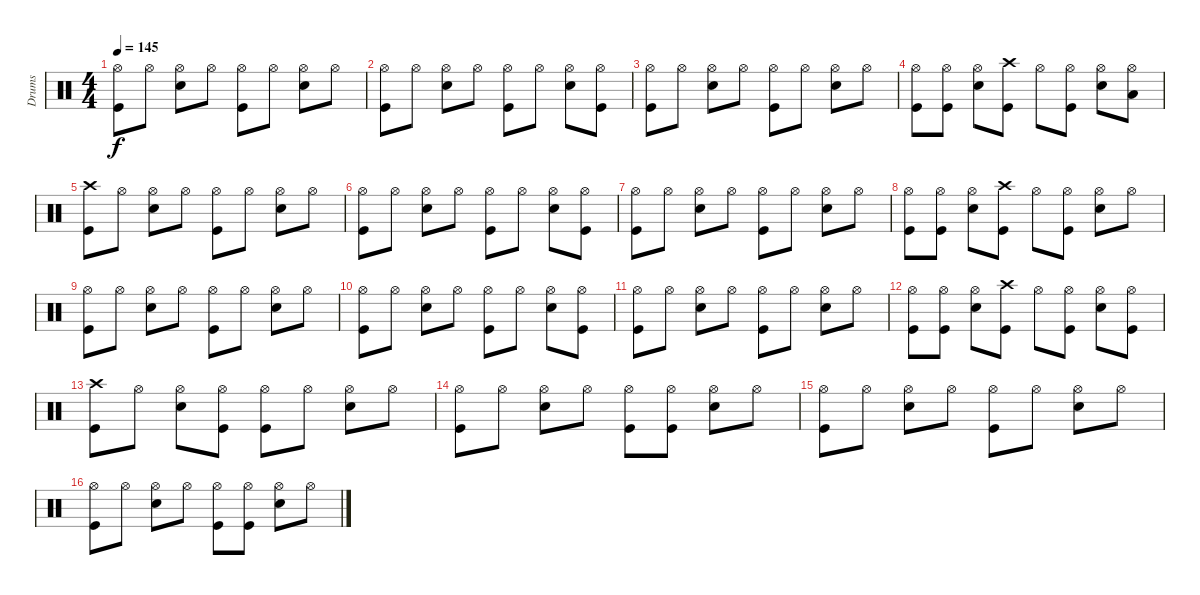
\track ("Drums" "Drums") {instrument percussion}
\staff {score}
\articulation defaults
\ts (4 4)
\tempo 145
\clef neutral
\ks c
("Hi-Hat (open)" "Kick (hit)").8{dy f} "Hi-Hat (open)".8 ("Hi-Hat (open)" "Snare (hit) 2").8 "Hi-Hat (open)".8 ("Hi-Hat (open)" "Kick (hit)").8 "Hi-Hat (open)".8 ("Hi-Hat (open)" "Snare (hit) 2").8 "Hi-Hat (open)".8 |
("Hi-Hat (open)" "Kick (hit)").8 "Hi-Hat (open)".8 ("Hi-Hat (open)" "Snare (hit) 2").8 "Hi-Hat (open)".8 ("Hi-Hat (open)" "Kick (hit)").8 "Hi-Hat (open)".8 ("Hi-Hat (open)" "Snare (hit) 2").8 ("Hi-Hat (open)" "Kick (hit)").8 |
("Hi-Hat (open)" "Kick (hit)").8 "Hi-Hat (open)".8 ("Hi-Hat (open)" "Snare (hit) 2").8 "Hi-Hat (open)".8 ("Hi-Hat (open)" "Kick (hit)").8 "Hi-Hat (open)".8 ("Hi-Hat (open)" "Snare (hit) 2").8 "Hi-Hat (open)".8 |
("Hi-Hat (open)" "Kick (hit)").8 ("Hi-Hat (open)" "Kick (hit)").8 ("Hi-Hat (open)" "Snare (hit) 2").8 ("Crash high (hit)" "Kick (hit)").8 "Hi-Hat (open)".8 ("Hi-Hat (open)" "Kick (hit)").8 ("Hi-Hat (open)" "Snare (hit) 2").8 ("Hi-Hat (open)" "Low Tom (hit)").8 |
("Crash high (hit)" "Kick (hit)").8 "Hi-Hat (open)".8 ("Hi-Hat (open)" "Snare (hit) 2").8 "Hi-Hat (open)".8 ("Hi-Hat (open)" "Kick (hit)").8 "Hi-Hat (open)".8 ("Hi-Hat (open)" "Snare (hit) 2").8 "Hi-Hat (open)".8 |
("Hi-Hat (open)" "Kick (hit)").8 "Hi-Hat (open)".8 ("Hi-Hat (open)" "Snare (hit) 2").8 "Hi-Hat (open)".8 ("Hi-Hat (open)" "Kick (hit)").8 "Hi-Hat (open)".8 ("Hi-Hat (open)" "Snare (hit) 2").8 ("Hi-Hat (open)" "Kick (hit)").8 |
("Hi-Hat (open)" "Kick (hit)").8 "Hi-Hat (open)".8 ("Hi-Hat (open)" "Snare (hit) 2").8 "Hi-Hat (open)".8 ("Hi-Hat (open)" "Kick (hit)").8 "Hi-Hat (open)".8 ("Hi-Hat (open)" "Snare (hit) 2").8 "Hi-Hat (open)".8 |
("Hi-Hat (open)" "Kick (hit)").8 ("Hi-Hat (open)" "Kick (hit)").8 ("Hi-Hat (open)" "Snare (hit) 2").8 ("Crash high (hit)" "Kick (hit)").8 "Hi-Hat (open)".8 ("Hi-Hat (open)" "Kick (hit)").8 ("Hi-Hat (open)" "Snare (hit) 2").8 "Hi-Hat (open)".8 |
("Hi-Hat (open)" "Kick (hit)").8 "Hi-Hat (open)".8 ("Hi-Hat (open)" "Snare (hit) 2").8 "Hi-Hat (open)".8 ("Hi-Hat (open)" "Kick (hit)").8 "Hi-Hat (open)".8 ("Hi-Hat (open)" "Snare (hit) 2").8 "Hi-Hat (open)".8 |
("Hi-Hat (open)" "Kick (hit)").8 "Hi-Hat (open)".8 ("Hi-Hat (open)" "Snare (hit) 2").8 "Hi-Hat (open)".8 ("Hi-Hat (open)" "Kick (hit)").8 "Hi-Hat (open)".8 ("Hi-Hat (open)" "Snare (hit) 2").8 ("Hi-Hat (open)" "Kick (hit)").8 |
("Hi-Hat (open)" "Kick (hit)").8 "Hi-Hat (open)".8 ("Hi-Hat (open)" "Snare (hit) 2").8 "Hi-Hat (open)".8 ("Hi-Hat (open)" "Kick (hit)").8 "Hi-Hat (open)".8 ("Hi-Hat (open)" "Snare (hit) 2").8 "Hi-Hat (open)".8 |
("Hi-Hat (open)" "Kick (hit)").8 ("Hi-Hat (open)" "Kick (hit)").8 ("Hi-Hat (open)" "Snare (hit) 2").8 ("Crash high (hit)" "Kick (hit)").8 "Hi-Hat (open)".8 ("Hi-Hat (open)" "Kick (hit)").8 ("Hi-Hat (open)" "Snare (hit) 2").8 ("Hi-Hat (open)" "Kick (hit)").8 |
("Crash high (hit)" "Kick (hit)").8 "Hi-Hat (open)".8 ("Hi-Hat (open)" "Snare (hit) 2").8 ("Hi-Hat (open)" "Kick (hit)").8 ("Hi-Hat (open)" "Kick (hit)").8 "Hi-Hat (open)".8 ("Hi-Hat (open)" "Snare (hit) 2").8 "Hi-Hat (open)".8 |
("Hi-Hat (open)" "Kick (hit)").8 "Hi-Hat (open)".8 ("Hi-Hat (open)" "Snare (hit) 2").8 "Hi-Hat (open)".8 ("Hi-Hat (open)" "Kick (hit)").8 ("Hi-Hat (open)" "Kick (hit)").8 ("Hi-Hat (open)" "Snare (hit) 2").8 "Hi-Hat (open)".8 |
("Hi-Hat (open)" "Kick (hit)").8 "Hi-Hat (open)".8 ("Hi-Hat (open)" "Snare (hit) 2").8 "Hi-Hat (open)".8 ("Hi-Hat (open)" "Kick (hit)").8 "Hi-Hat (open)".8 ("Hi-Hat (open)" "Snare (hit) 2").8 "Hi-Hat (open)".8 |
("Hi-Hat (open)" "Kick (hit)").8 "Hi-Hat (open)".8 ("Hi-Hat (open)" "Snare (hit) 2").8 "Hi-Hat (open)".8 ("Hi-Hat (open)" "Kick (hit)").8 ("Hi-Hat (open)" "Kick (hit)").8 ("Hi-Hat (open)" "Snare (hit) 2").8 "Hi-Hat (open)".8
